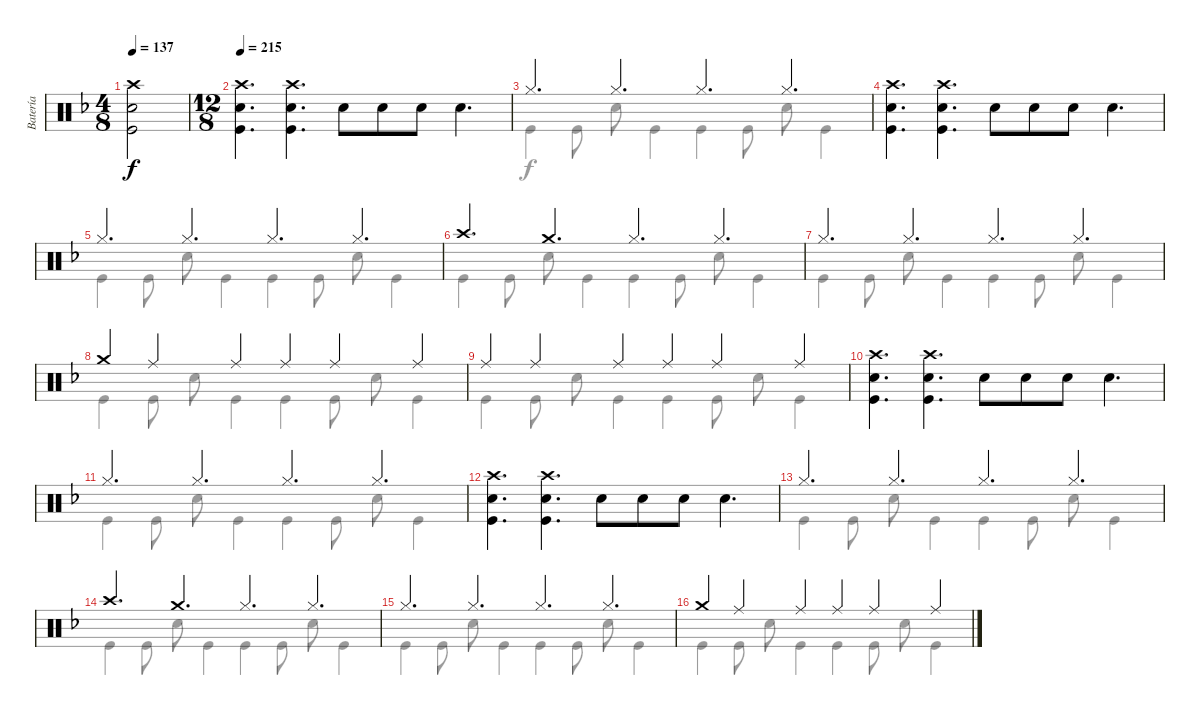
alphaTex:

\track ("Batería" "Batería") {instrument percussion}
\staff {score}
\articulation defaults
\voice
\ts (4 8)
\tempo 137
\clef neutral
\ks f
("Crash high (hit)" "Snare (hit) 2" "Kick (hit)").2{dy f} |
\ts (12 8)
\tempo 215
\ks dminor
("Crash high (hit)" "Snare (hit) 2" "Kick (hit)").4{d} ("Crash high (hit)" "Snare (hit) 2" "Kick (hit)").4{d} "Snare (hit) 2".8 "Snare (hit) 2".8 "Snare (hit) 2".8 "Snare (hit) 2".4{d} |
"Hi-Hat (closed)".4{d} "Hi-Hat (closed)".4{d} "Hi-Hat (closed)".4{d} "Hi-Hat (closed)".4{d} |
("Crash high (hit)" "Snare (hit) 2" "Kick (hit)").4{d} ("Crash high (hit)" "Snare (hit) 2" "Kick (hit)").4{d} "Snare (hit) 2".8 "Snare (hit) 2".8 "Snare (hit) 2".8 "Snare (hit) 2".4{d} |
"Hi-Hat (closed)".4{d} "Hi-Hat (closed)".4{d} "Hi-Hat (closed)".4{d} "Hi-Hat (closed)".4{d} |
"Crash high (hit)".4{d} "Crash medium (hit)".4{d} "Hi-Hat (closed)".4{d} "Hi-Hat (closed)".4{d} |
"Hi-Hat (closed)".4{d} "Hi-Hat (closed)".4{d} "Hi-Hat (closed)".4{d} "Hi-Hat (closed)".4{d} |
"Crash medium (hit)".4 "Ride (middle)".4 "Ride (middle)".4 "Ride (middle)".4 "Ride (middle)".4 "Ride (middle)".4 |
"Ride (middle)".4 "Ride (middle)".4 "Ride (middle)".4 "Ride (middle)".4 "Ride (middle)".4 "Ride (middle)".4 |
("Crash high (hit)" "Snare (hit) 2" "Kick (hit)").4{d} ("Crash high (hit)" "Snare (hit) 2" "Kick (hit)").4{d} "Snare (hit) 2".8 "Snare (hit) 2".8 "Snare (hit) 2".8 "Snare (hit) 2".4{d} |
"Hi-Hat (closed)".4{d} "Hi-Hat (closed)".4{d} "Hi-Hat (closed)".4{d} "Hi-Hat (closed)".4{d} |
("Crash high (hit)" "Snare (hit) 2" "Kick (hit)").4{d} ("Crash high (hit)" "Snare (hit) 2" "Kick (hit)").4{d} "Snare (hit) 2".8 "Snare (hit) 2".8 "Snare (hit) 2".8 "Snare (hit) 2".4{d} |
"Hi-Hat (closed)".4{d} "Hi-Hat (closed)".4{d} "Hi-Hat (closed)".4{d} "Hi-Hat (closed)".4{d} |
"Crash high (hit)".4{d} "Crash medium (hit)".4{d} "Hi-Hat (closed)".4{d} "Hi-Hat (closed)".4{d} |
"Hi-Hat (closed)".4{d} "Hi-Hat (closed)".4{d} "Hi-Hat (closed)".4{d} "Hi-Hat (closed)".4{d} |
"Crash medium (hit)".4 "Ride (middle)".4 "Ride (middle)".4 "Ride (middle)".4 "Ride (middle)".4 "Ride (middle)".4
\voice
\clef neutral
\ottava regular
\simile none
\ks f
|
\ks dminor
|
"Kick (hit)".4 "Kick (hit)".8 "Snare (hit) 2".8 "Kick (hit)".4 "Kick (hit)".4 "Kick (hit)".8 "Snare (hit) 2".8 "Kick (hit)".4 |
|
"Kick (hit)".4 "Kick (hit)".8 "Snare (hit) 2".8 "Kick (hit)".4 "Kick (hit)".4 "Kick (hit)".8 "Snare (hit) 2".8 "Kick (hit)".4 |
"Kick (hit)".4 "Kick (hit)".8 "Snare (hit) 2".8 "Kick (hit)".4 "Kick (hit)".4 "Kick (hit)".8 "Snare (hit) 2".8 "Kick (hit)".4 |
"Kick (hit)".4 "Kick (hit)".8 "Snare (hit) 2".8 "Kick (hit)".4 "Kick (hit)".4 "Kick (hit)".8 "Snare (hit) 2".8 "Kick (hit)".4 |
"Kick (hit)".4 "Kick (hit)".8 "Snare (hit) 2".8 "Kick (hit)".4 "Kick (hit)".4 "Kick (hit)".8 "Snare (hit) 2".8 "Kick (hit)".4 |
"Kick (hit)".4 "Kick (hit)".8 "Snare (hit) 2".8 "Kick (hit)".4 "Kick (hit)".4 "Kick (hit)".8 "Snare (hit) 2".8 "Kick (hit)".4 |
|
"Kick (hit)".4 "Kick (hit)".8 "Snare (hit) 2".8 "Kick (hit)".4 "Kick (hit)".4 "Kick (hit)".8 "Snare (hit) 2".8 "Kick (hit)".4 |
|
"Kick (hit)".4 "Kick (hit)".8 "Snare (hit) 2".8 "Kick (hit)".4 "Kick (hit)".4 "Kick (hit)".8 "Snare (hit) 2".8 "Kick (hit)".4 |
"Kick (hit)".4 "Kick (hit)".8 "Snare (hit) 2".8 "Kick (hit)".4 "Kick (hit)".4 "Kick (hit)".8 "Snare (hit) 2".8 "Kick (hit)".4 |
"Kick (hit)".4 "Kick (hit)".8 "Snare (hit) 2".8 "Kick (hit)".4 "Kick (hit)".4 "Kick (hit)".8 "Snare (hit) 2".8 "Kick (hit)".4 |
"Kick (hit)".4 "Kick (hit)".8 "Snare (hit) 2".8 "Kick (hit)".4 "Kick (hit)".4 "Kick (hit)".8 "Snare (hit) 2".8 "Kick (hit)".4
